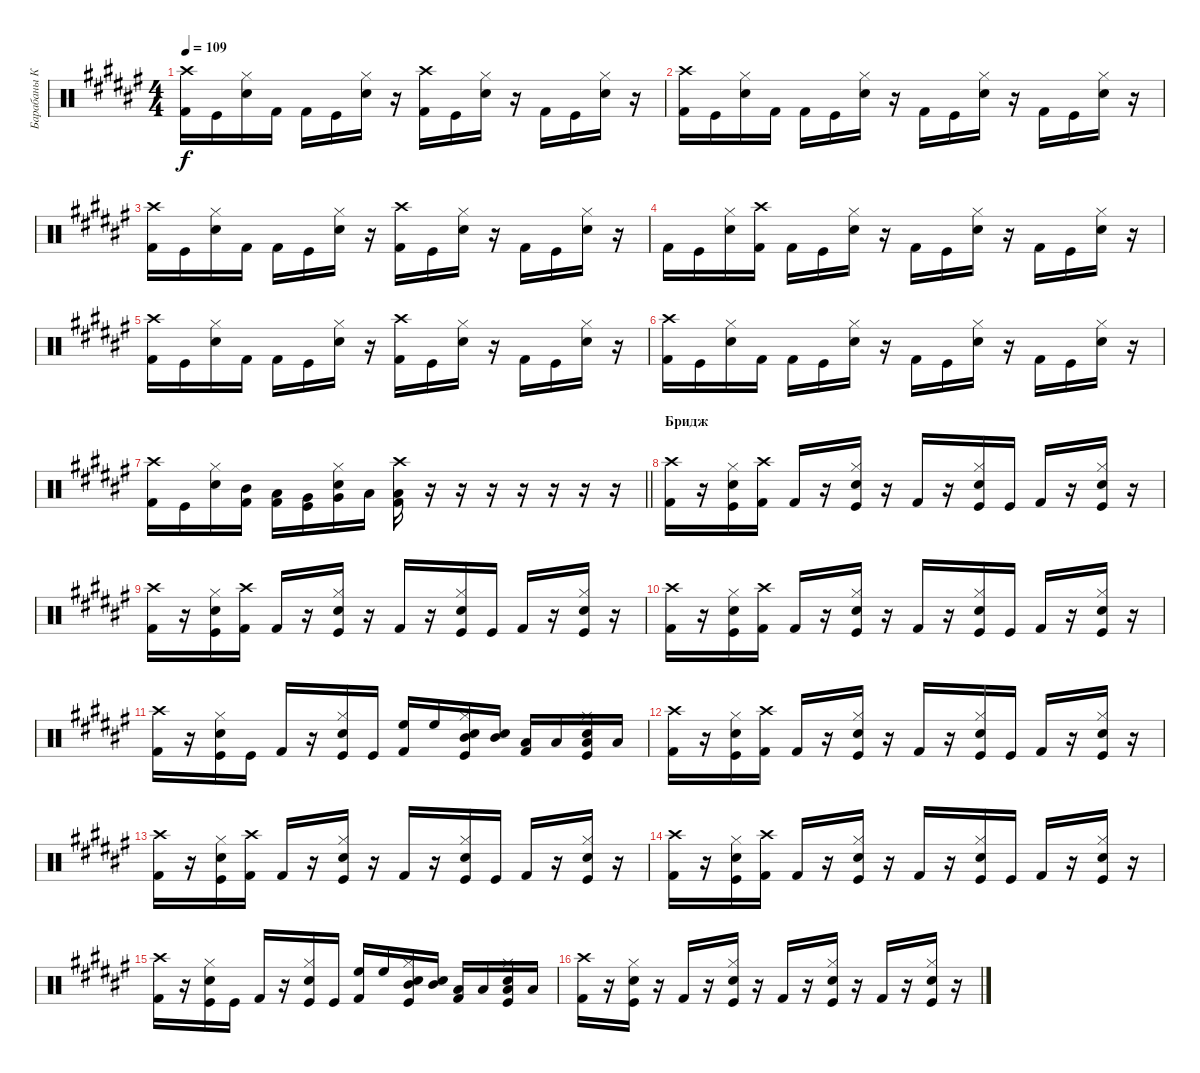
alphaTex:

\track ("Барабаны Кольян" "Барабаны К") {instrument percussion}
\staff {score}
\articulation defaults
\ts (4 4)
\tempo 109
\clef neutral
\ks f#
("Crash high (hit)" "Kick (hit) 2").16{dy f} "Kick (hit)".16 ("Hi-Hat (closed)" "Snare (hit) 2").16 "Kick (hit) 2".16 "Kick (hit) 2".16 "Kick (hit)".16 ("Hi-Hat (closed)" "Snare (hit) 2").16 r.16 ("Crash high (hit)" "Kick (hit) 2").16 "Kick (hit)".16 ("Hi-Hat (closed)" "Snare (hit) 2").16 r.16 "Kick (hit) 2".16 "Kick (hit)".16 ("Hi-Hat (closed)" "Snare (hit) 2").16 r.16 |
("Crash high (hit)" "Kick (hit) 2").16 "Kick (hit)".16 ("Hi-Hat (closed)" "Snare (hit) 2").16 "Kick (hit) 2".16 "Kick (hit) 2".16 "Kick (hit)".16 ("Hi-Hat (closed)" "Snare (hit) 2").16 r.16 "Kick (hit) 2".16 "Kick (hit)".16 ("Hi-Hat (closed)" "Snare (hit) 2").16 r.16 "Kick (hit) 2".16 "Kick (hit)".16 ("Hi-Hat (closed)" "Snare (hit) 2").16 r.16 |
("Crash high (hit)" "Kick (hit) 2").16 "Kick (hit)".16 ("Hi-Hat (closed)" "Snare (hit) 2").16 "Kick (hit) 2".16 "Kick (hit) 2".16 "Kick (hit)".16 ("Hi-Hat (closed)" "Snare (hit) 2").16 r.16 ("Crash high (hit)" "Kick (hit) 2").16 "Kick (hit)".16 ("Hi-Hat (closed)" "Snare (hit) 2").16 r.16 "Kick (hit) 2".16 "Kick (hit)".16 ("Hi-Hat (closed)" "Snare (hit) 2").16 r.16 |
"Kick (hit) 2".16 "Kick (hit)".16 ("Hi-Hat (closed)" "Snare (hit) 2").16 ("Crash high (hit)" "Kick (hit) 2").16 "Kick (hit) 2".16 "Kick (hit)".16 ("Hi-Hat (closed)" "Snare (hit) 2").16 r.16 "Kick (hit) 2".16 "Kick (hit)".16 ("Hi-Hat (closed)" "Snare (hit) 2").16 r.16 "Kick (hit) 2".16 "Kick (hit)".16 ("Hi-Hat (closed)" "Snare (hit) 2").16 r.16 |
("Crash high (hit)" "Kick (hit) 2").16 "Kick (hit)".16 ("Hi-Hat (closed)" "Snare (hit) 2").16 "Kick (hit) 2".16 "Kick (hit) 2".16 "Kick (hit)".16 ("Hi-Hat (closed)" "Snare (hit) 2").16 r.16 ("Crash high (hit)" "Kick (hit) 2").16 "Kick (hit)".16 ("Hi-Hat (closed)" "Snare (hit) 2").16 r.16 "Kick (hit) 2".16 "Kick (hit)".16 ("Hi-Hat (closed)" "Snare (hit) 2").16 r.16 |
("Crash high (hit)" "Kick (hit) 2").16 "Kick (hit)".16 ("Hi-Hat (closed)" "Snare (hit) 2").16 "Kick (hit) 2".16 "Kick (hit) 2".16 "Kick (hit)".16 ("Hi-Hat (closed)" "Snare (hit) 2").16 r.16 "Kick (hit) 2".16 "Kick (hit)".16 ("Hi-Hat (closed)" "Snare (hit) 2").16 r.16 "Kick (hit) 2".16 "Kick (hit)".16 ("Hi-Hat (closed)" "Snare (hit) 2").16 r.16 |
\barLineRight lightlight
("Crash high (hit)" "Kick (hit) 2").16 "Kick (hit)".16 ("Hi-Hat (closed)" "Snare (hit) 2").16 ("Mid Tom (hit)" "Kick (hit) 2").16 ("Low Tom (hit)" "Kick (hit) 2").16 ("Very Low Tom (hit)" "Kick (hit)").16 ("Hi-Hat (closed)" "Snare (hit) 2" "Very Low Tom (hit)").16 "Low Floor Tom (hit)".16 ("Crash high (hit)" "Low Floor Tom (hit)" "Kick (hit) 2").16 r.16 r.16 r.16 r.16 r.16 r.16 r.16 |
\section ("" "Бридж")
("Crash high (hit)" "Kick (hit) 2").16 r.16 ("Hi-Hat (closed)" "Snare (hit) 2" "Kick (hit)").16 ("Crash high (hit)" "Kick (hit) 2").16 "Kick (hit) 2".16 r.16 ("Hi-Hat (closed)" "Snare (hit) 2" "Kick (hit)").16 r.16 "Kick (hit) 2".16 r.16 ("Hi-Hat (closed)" "Snare (hit) 2" "Kick (hit)").16 "Kick (hit)".16 "Kick (hit) 2".16 r.16 ("Hi-Hat (closed)" "Snare (hit) 2" "Kick (hit)").16 r.16 |
("Crash high (hit)" "Kick (hit) 2").16 r.16 ("Hi-Hat (closed)" "Snare (hit) 2" "Kick (hit)").16 ("Crash high (hit)" "Kick (hit) 2").16 "Kick (hit) 2".16 r.16 ("Hi-Hat (closed)" "Snare (hit) 2" "Kick (hit)").16 r.16 "Kick (hit) 2".16 r.16 ("Hi-Hat (closed)" "Snare (hit) 2" "Kick (hit)").16 "Kick (hit)".16 "Kick (hit) 2".16 r.16 ("Hi-Hat (closed)" "Snare (hit) 2" "Kick (hit)").16 r.16 |
("Crash high (hit)" "Kick (hit) 2").16 r.16 ("Hi-Hat (closed)" "Snare (hit) 2" "Kick (hit)").16 ("Crash high (hit)" "Kick (hit) 2").16 "Kick (hit) 2".16 r.16 ("Hi-Hat (closed)" "Snare (hit) 2" "Kick (hit)").16 r.16 "Kick (hit) 2".16 r.16 ("Hi-Hat (closed)" "Snare (hit) 2" "Kick (hit)").16 "Kick (hit)".16 "Kick (hit) 2".16 r.16 ("Hi-Hat (closed)" "Snare (hit) 2" "Kick (hit)").16 r.16 |
("Crash high (hit)" "Kick (hit) 2").16 r.16 ("Hi-Hat (closed)" "Snare (hit) 2" "Kick (hit)").16 "Kick (hit)".16 "Kick (hit) 2".16 r.16 ("Hi-Hat (closed)" "Snare (hit) 2" "Kick (hit)").16 "Kick (hit)".16 ("High Floor Tom (hit)" "Kick (hit) 2").16 "High Floor Tom (hit)".16 ("Hi-Hat (closed)" "Snare (hit) 2" "Mid Tom (hit)" "Kick (hit)").16 ("Snare (hit) 2" "Mid Tom (hit)").16 ("Low Tom (hit)" "Kick (hit) 2").16 "Low Tom (hit)".16 ("Hi-Hat (closed)" "Snare (hit) 2" "Low Floor Tom (hit)" "Kick (hit)").16 "Low Floor Tom (hit)".16 |
("Crash high (hit)" "Kick (hit) 2").16 r.16 ("Hi-Hat (closed)" "Snare (hit) 2" "Kick (hit)").16 ("Crash high (hit)" "Kick (hit) 2").16 "Kick (hit) 2".16 r.16 ("Hi-Hat (closed)" "Snare (hit) 2" "Kick (hit)").16 r.16 "Kick (hit) 2".16 r.16 ("Hi-Hat (closed)" "Snare (hit) 2" "Kick (hit)").16 "Kick (hit)".16 "Kick (hit) 2".16 r.16 ("Hi-Hat (closed)" "Snare (hit) 2" "Kick (hit)").16 r.16 |
("Crash high (hit)" "Kick (hit) 2").16 r.16 ("Hi-Hat (closed)" "Snare (hit) 2" "Kick (hit)").16 ("Crash high (hit)" "Kick (hit) 2").16 "Kick (hit) 2".16 r.16 ("Hi-Hat (closed)" "Snare (hit) 2" "Kick (hit)").16 r.16 "Kick (hit) 2".16 r.16 ("Hi-Hat (closed)" "Snare (hit) 2" "Kick (hit)").16 "Kick (hit)".16 "Kick (hit) 2".16 r.16 ("Hi-Hat (closed)" "Snare (hit) 2" "Kick (hit)").16 r.16 |
("Crash high (hit)" "Kick (hit) 2").16 r.16 ("Hi-Hat (closed)" "Snare (hit) 2" "Kick (hit)").16 ("Crash high (hit)" "Kick (hit) 2").16 "Kick (hit) 2".16 r.16 ("Hi-Hat (closed)" "Snare (hit) 2" "Kick (hit)").16 r.16 "Kick (hit) 2".16 r.16 ("Hi-Hat (closed)" "Snare (hit) 2" "Kick (hit)").16 "Kick (hit)".16 "Kick (hit) 2".16 r.16 ("Hi-Hat (closed)" "Snare (hit) 2" "Kick (hit)").16 r.16 |
("Crash high (hit)" "Kick (hit) 2").16 r.16 ("Hi-Hat (closed)" "Snare (hit) 2" "Kick (hit)").16 "Kick (hit)".16 "Kick (hit) 2".16 r.16 ("Hi-Hat (closed)" "Snare (hit) 2" "Kick (hit)").16 "Kick (hit)".16 ("High Floor Tom (hit)" "Kick (hit) 2").16 "High Floor Tom (hit)".16 ("Hi-Hat (closed)" "Snare (hit) 2" "Mid Tom (hit)" "Kick (hit)").16 ("Snare (hit) 2" "Mid Tom (hit)").16 ("Low Tom (hit)" "Kick (hit) 2").16 "Low Tom (hit)".16 ("Hi-Hat (closed)" "Snare (hit) 2" "Low Floor Tom (hit)" "Kick (hit)").16 "Low Floor Tom (hit)".16 |
("Crash high (hit)" "Kick (hit) 2").16 r.16 ("Hi-Hat (closed)" "Snare (hit) 2" "Kick (hit)").16 r.16 "Kick (hit) 2".16 r.16 ("Hi-Hat (closed)" "Snare (hit) 2" "Kick (hit)").16 r.16 "Kick (hit) 2".16 r.16 ("Hi-Hat (closed)" "Snare (hit) 2" "Kick (hit)").16 r.16 "Kick (hit) 2".16 r.16 ("Hi-Hat (closed)" "Snare (hit) 2" "Kick (hit)").16 r.16
